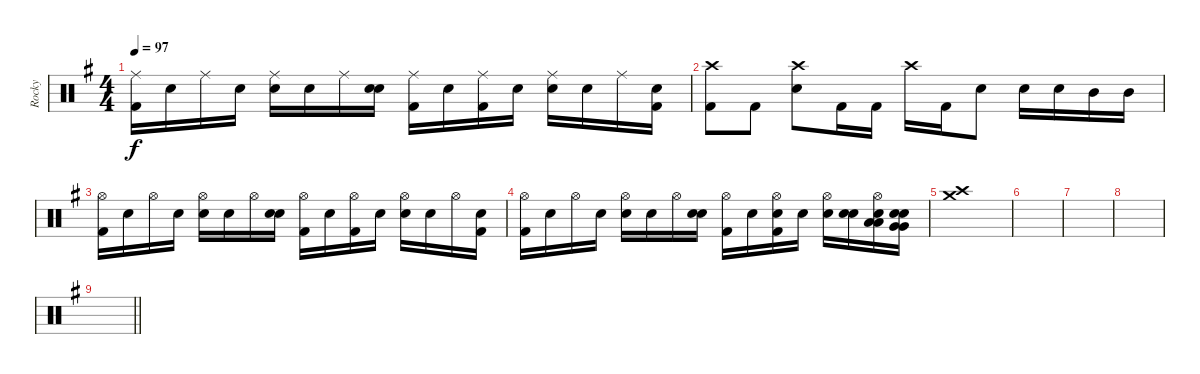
\track ("Rocky" "Rocky") {instrument percussion}
\staff {score}
\articulation defaults
\ts (4 4)
\tempo 97
\clef neutral
\ks g
("Ride (middle)" "Kick (hit) 2").16{dy f} "Snare (hit)".16 "Ride (middle)".16 "Snare (hit)".16 ("Ride (middle)" "Snare (hit) 2").16 "Snare (hit)".16 "Ride (middle)".16 ("Snare (hit)" "Snare (hit) 2").16 ("Ride (middle)" "Kick (hit) 2").16 "Snare (hit)".16 ("Ride (middle)" "Kick (hit) 2").16 "Snare (hit)".16 ("Ride (middle)" "Snare (hit) 2").16 "Snare (hit)".16 "Ride (middle)".16 ("Snare (hit)" "Kick (hit) 2").16 |
("Crash high (hit)" "Kick (hit) 2").8 "Kick (hit) 2".8 ("Crash high (hit)" "Snare (hit) 2").8 "Kick (hit) 2".16 "Kick (hit) 2".16 "Crash high (hit)".16 "Kick (hit) 2".16 "Snare (hit) 2".8 "Snare (hit) 2".16 "Snare (hit) 2".16 "Mid Tom (hit)".16 "Mid Tom (hit)".16 |
("Hi-Hat (open)" "Kick (hit) 2").16 "Snare (hit)".16 "Hi-Hat (open)".16 "Snare (hit)".16 ("Hi-Hat (open)" "Snare (hit) 2").16 "Snare (hit)".16 "Hi-Hat (open)".16 ("Snare (hit)" "Snare (hit) 2").16 ("Hi-Hat (open)" "Kick (hit) 2").16 "Snare (hit)".16 ("Hi-Hat (open)" "Kick (hit) 2").16 "Snare (hit)".16 ("Hi-Hat (open)" "Snare (hit) 2").16 "Snare (hit)".16 "Hi-Hat (open)".16 ("Snare (hit)" "Kick (hit) 2").16 |
("Hi-Hat (open)" "Kick (hit) 2").16 "Snare (hit)".16 "Hi-Hat (open)".16 "Snare (hit)".16 ("Hi-Hat (open)" "Snare (hit) 2").16 "Snare (hit)".16 "Hi-Hat (open)".16 ("Snare (hit)" "Snare (hit) 2").16 ("Hi-Hat (open)" "Kick (hit) 2").16 "Snare (hit)".16 ("Hi-Hat (open)" "Snare (hit) 2" "Kick (hit) 2").16 "Snare (hit)".16 ("Hi-Hat (open)" "Snare (hit) 2").16 ("Snare (hit)" "Snare (hit) 2").16 ("Hi-Hat (open)" "Low Tom (hit)" "Low Tom (hit)" "Snare (hit) 2").16 ("Snare (hit)" "Very Low Tom (hit)" "Very Low Tom (hit)" "Snare (hit) 2").16 |
("Crash high (hit)" "Crash medium (hit)").1 |
|
|
|
\barLineRight lightlight
